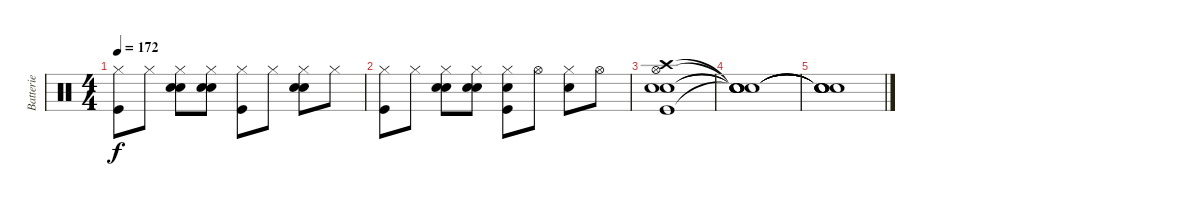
\track ("Batterie" "Batterie") {instrument percussion}
\staff {score}
\articulation defaults
\ts (4 4)
\tempo 172
\clef neutral
\ks c
("Hi-Hat (closed)" "Kick (hit)").8{dy f} "Hi-Hat (closed)".8 ("Electric Snare (hit)" "Hi-Hat (closed)" "Snare (hit) 2").8 ("Electric Snare (hit)" "Hi-Hat (closed)" "Snare (hit) 2").8 ("Hi-Hat (closed)" "Kick (hit)").8 "Hi-Hat (closed)".8 ("Electric Snare (hit)" "Hi-Hat (closed)" "Snare (hit) 2").8 "Hi-Hat (closed)".8 |
("Hi-Hat (closed)" "Kick (hit)").8 "Hi-Hat (closed)".8 ("Electric Snare (hit)" "Hi-Hat (closed)" "Snare (hit) 2").8 ("Electric Snare (hit)" "Hi-Hat (closed)" "Snare (hit) 2").8 ("Snare (hit) 2" "Hi-Hat (closed)" "Kick (hit)").8 "Hi-Hat (open)".8 ("Snare (hit) 2" "Hi-Hat (closed)").8 "Hi-Hat (open)".8 |
("Crash high (hit)" "Hi-Hat (open)" "Electric Snare (hit)" "Snare (hit) 2" "Kick (hit)").1 |
("Snare (hit)"{t} "Snare (hit)"{t} "Snare (hit)"{t} "Snare (hit)"{t} "Snare (hit)"{t}).1 |
("Snare (hit)"{t} "Snare (hit)"{t} "Snare (hit)"{t} "Snare (hit)"{t} "Snare (hit)"{t}).1
